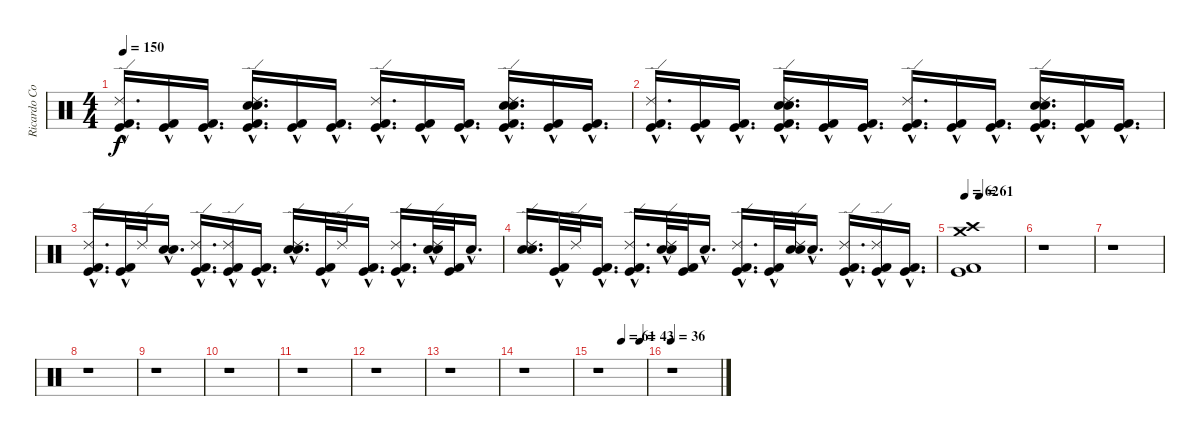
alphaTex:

\track ("Ricardo Confessori" "Ricardo Co") {instrument percussion}
\staff {score}
\articulation defaults
\ts (4 4)
\tempo 150
\clef neutral
\ks c
("Ride (edge) 2"{hac} "Kick (hit) 2"{hac} "Kick (hit)"{hac}).16{d dy f} ("Kick (hit) 2"{hac} "Kick (hit)"{hac}).16 ("Kick (hit) 2"{hac} "Kick (hit)"{hac}).16{d} ("Electric Snare (hit)"{hac} "Snare (hit) 2"{hac} "Ride (edge) 2"{hac} "Kick (hit) 2"{hac} "Kick (hit)"{hac}).16{d} ("Kick (hit) 2"{hac} "Kick (hit)"{hac}).16 ("Kick (hit) 2"{hac} "Kick (hit)"{hac}).16{d} ("Ride (edge) 2"{hac} "Kick (hit) 2"{hac} "Kick (hit)"{hac}).16{d} ("Kick (hit) 2"{hac} "Kick (hit)"{hac}).16 ("Kick (hit) 2"{hac} "Kick (hit)"{hac}).16{d} ("Snare (hit) 2"{hac} "Electric Snare (hit)"{hac} "Ride (edge) 2"{hac} "Kick (hit) 2"{hac} "Kick (hit)"{hac}).16{d} ("Kick (hit) 2"{hac} "Kick (hit)"{hac}).16 ("Kick (hit) 2"{hac} "Kick (hit)"{hac}).16{d} |
("Ride (edge) 2"{hac} "Kick (hit) 2"{hac} "Kick (hit)"{hac}).16{d} ("Kick (hit) 2"{hac} "Kick (hit)"{hac}).16 ("Kick (hit) 2"{hac} "Kick (hit)"{hac}).16{d} ("Electric Snare (hit)"{hac} "Snare (hit) 2"{hac} "Ride (edge) 2"{hac} "Kick (hit) 2"{hac} "Kick (hit)"{hac}).16{d} ("Kick (hit) 2"{hac} "Kick (hit)"{hac}).16 ("Kick (hit) 2"{hac} "Kick (hit)"{hac}).16{d} ("Ride (edge) 2"{hac} "Kick (hit) 2"{hac} "Kick (hit)"{hac}).16{d} ("Kick (hit) 2"{hac} "Kick (hit)"{hac}).16 ("Kick (hit) 2"{hac} "Kick (hit)"{hac}).16{d} ("Snare (hit) 2"{hac} "Electric Snare (hit)"{hac} "Ride (edge) 2"{hac} "Kick (hit) 2"{hac} "Kick (hit)"{hac}).16{d} ("Kick (hit) 2"{hac} "Kick (hit)"{hac}).16 ("Kick (hit) 2"{hac} "Kick (hit)"{hac}).16{d} |
("Ride (edge) 2" "Kick (hit) 2"{hac} "Kick (hit)"{hac}).16{d} ("Kick (hit) 2"{hac} "Kick (hit)"{hac}).32 "Ride (edge) 2".32 ("Snare (hit) 2"{hac} "Electric Snare (hit)"{hac}).16{d} ("Ride (edge) 2"{hac} "Kick (hit) 2"{hac} "Kick (hit)"{hac}).16{d} ("Ride (edge) 2"{hac} "Kick (hit) 2"{hac} "Kick (hit)"{hac}).16 ("Kick (hit) 2"{hac} "Kick (hit)"{hac}).16{d} ("Ride (edge) 2" "Snare (hit) 2"{hac} "Electric Snare (hit)"{hac}).16{d} ("Kick (hit) 2"{hac} "Kick (hit)"{hac}).32 "Ride (edge) 2".32 ("Kick (hit) 2"{hac} "Kick (hit)"{hac}).16{d} ("Ride (edge) 2"{hac} "Kick (hit) 2" "Kick (hit)").16{d} ("Snare (hit) 2"{hac} "Electric Snare (hit)"{hac} "Ride (edge) 2"{hac}).32 ("Kick (hit) 2" "Kick (hit)").32 "Snare (hit)"{hac}.16{d} |
("Ride (edge) 2" "Electric Snare (hit)" "Snare (hit) 2").16{d} ("Kick (hit) 2"{hac} "Kick (hit)"{hac}).32 "Ride (edge) 2".32 ("Kick (hit) 2"{hac} "Kick (hit)"{hac}).16{d} ("Ride (edge) 2"{hac} "Kick (hit) 2" "Kick (hit)").16{d} ("Snare (hit) 2"{hac} "Electric Snare (hit)"{hac} "Ride (edge) 2"{hac}).32 ("Kick (hit) 2" "Kick (hit)").32 "Snare (hit)"{hac}.16{d} ("Ride (edge) 2" "Kick (hit) 2"{hac} "Kick (hit)"{hac}).16{d} ("Kick (hit) 2"{hac} "Kick (hit)"{hac}).32 ("Electric Snare (hit)" "Snare (hit) 2" "Ride (edge) 2").32 "Snare (hit)"{hac}.16{d} ("Ride (edge) 2"{hac} "Kick (hit) 2"{hac} "Kick (hit)"{hac}).16{d} ("Ride (edge) 2"{hac} "Kick (hit) 2"{hac} "Kick (hit)"{hac}).16 ("Kick (hit) 2"{hac} "Kick (hit)"{hac}).16{d} |
\tempo 62
\tempo (61 0.25)
("Crash medium (hit)" "Crash high (hit)" "Kick (hit) 2" "Kick (hit)").1 |
r.1 |
r.1 |
r.1 |
r.1 |
r.1 |
r.1 |
r.1 |
r.1 |
r.1 |
\tempo (61 0.5)
\tempo (43 0.875)
r.1 |
\tempo 36
r.1
